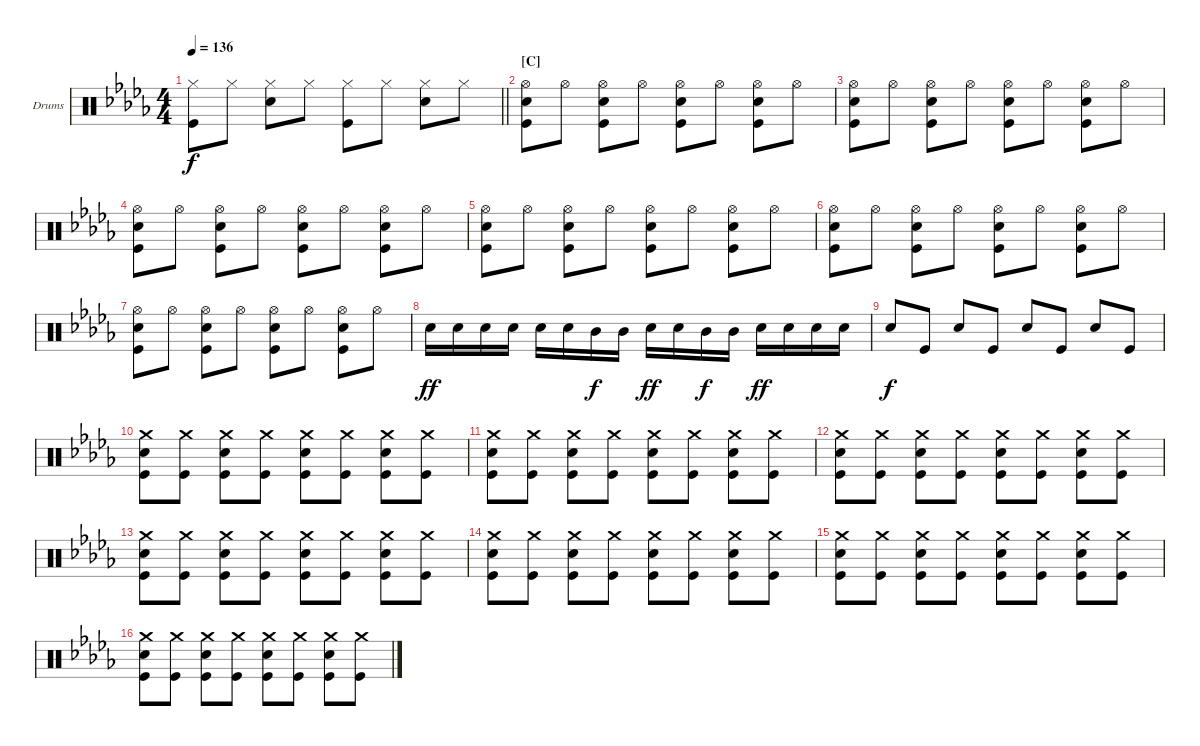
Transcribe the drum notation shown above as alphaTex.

\bracketExtendMode groupsimilarinstruments
\firstSystemTrackNameOrientation horizontal
\otherSystemsTrackNameOrientation horizontal
\track ("Fabrizio Moretti" "Drums") {instrument percussion}
\staff {score}
\articulation defaults
\ts (4 4)
\tempo 136
\clef neutral
\barLineRight lightlight
\ks db
("Hi-Hat (closed)" "Kick (hit)").8{dy f} "Hi-Hat (closed)".8 ("Hi-Hat (closed)" "Snare (hit) 2").8 "Hi-Hat (closed)".8 ("Hi-Hat (closed)" "Kick (hit)").8 "Hi-Hat (closed)".8 ("Hi-Hat (closed)" "Snare (hit) 2").8 "Hi-Hat (closed)".8 |
\section ("C" "")
("Hi-Hat (open)" "Snare (hit) 2" "Kick (hit)").8 "Hi-Hat (open)".8 ("Hi-Hat (open)" "Snare (hit) 2" "Kick (hit)").8 "Hi-Hat (open)".8 ("Hi-Hat (open)" "Snare (hit) 2" "Kick (hit)").8 "Hi-Hat (open)".8 ("Hi-Hat (open)" "Snare (hit) 2" "Kick (hit)").8 "Hi-Hat (open)".8 |
("Hi-Hat (open)" "Snare (hit) 2" "Kick (hit)").8 "Hi-Hat (open)".8 ("Hi-Hat (open)" "Snare (hit) 2" "Kick (hit)").8 "Hi-Hat (open)".8 ("Hi-Hat (open)" "Snare (hit) 2" "Kick (hit)").8 "Hi-Hat (open)".8 ("Hi-Hat (open)" "Snare (hit) 2" "Kick (hit)").8 "Hi-Hat (open)".8 |
("Hi-Hat (open)" "Snare (hit) 2" "Kick (hit)").8 "Hi-Hat (open)".8 ("Hi-Hat (open)" "Snare (hit) 2" "Kick (hit)").8 "Hi-Hat (open)".8 ("Hi-Hat (open)" "Snare (hit) 2" "Kick (hit)").8 "Hi-Hat (open)".8 ("Hi-Hat (open)" "Snare (hit) 2" "Kick (hit)").8 "Hi-Hat (open)".8 |
("Hi-Hat (open)" "Snare (hit) 2" "Kick (hit)").8 "Hi-Hat (open)".8 ("Hi-Hat (open)" "Snare (hit) 2" "Kick (hit)").8 "Hi-Hat (open)".8 ("Hi-Hat (open)" "Snare (hit) 2" "Kick (hit)").8 "Hi-Hat (open)".8 ("Hi-Hat (open)" "Snare (hit) 2" "Kick (hit)").8 "Hi-Hat (open)".8 |
("Hi-Hat (open)" "Snare (hit) 2" "Kick (hit)").8 "Hi-Hat (open)".8 ("Hi-Hat (open)" "Snare (hit) 2" "Kick (hit)").8 "Hi-Hat (open)".8 ("Hi-Hat (open)" "Snare (hit) 2" "Kick (hit)").8 "Hi-Hat (open)".8 ("Hi-Hat (open)" "Snare (hit) 2" "Kick (hit)").8 "Hi-Hat (open)".8 |
("Hi-Hat (open)" "Snare (hit) 2" "Kick (hit)").8 "Hi-Hat (open)".8 ("Hi-Hat (open)" "Snare (hit) 2" "Kick (hit)").8 "Hi-Hat (open)".8 ("Hi-Hat (open)" "Snare (hit) 2" "Kick (hit)").8 "Hi-Hat (open)".8 ("Hi-Hat (open)" "Snare (hit) 2" "Kick (hit)").8 "Hi-Hat (open)".8 |
"Snare (hit) 2".16{dy ff} "Snare (hit) 2".16 "Snare (hit) 2".16 "Snare (hit) 2".16 "Snare (hit) 2".16 "Snare (hit) 2".16 "Mid Tom (hit)".16{dy f} "Mid Tom (hit)".16 "Snare (hit) 2".16{dy ff} "Snare (hit) 2".16 "Mid Tom (hit)".16{dy f} "Mid Tom (hit)".16 "Snare (hit) 2".16{dy ff} "Snare (hit) 2".16 "Snare (hit) 2".16 "Snare (hit) 2".16 |
"Snare (hit) 2".8{dy f} "Kick (hit)".8 "Snare (hit) 2".8 "Kick (hit)".8 "Snare (hit) 2".8 "Kick (hit)".8 "Snare (hit) 2".8 "Kick (hit)".8 |
("Crash medium (hit)" "Snare (hit) 2" "Kick (hit)").8 ("Crash medium (hit)" "Kick (hit)").8 ("Crash medium (hit)" "Snare (hit) 2" "Kick (hit)").8 ("Crash medium (hit)" "Kick (hit)").8 ("Crash medium (hit)" "Snare (hit) 2" "Kick (hit)").8 ("Crash medium (hit)" "Kick (hit)").8 ("Crash medium (hit)" "Snare (hit) 2" "Kick (hit)").8 ("Crash medium (hit)" "Kick (hit)").8 |
("Crash medium (hit)" "Snare (hit) 2" "Kick (hit)").8 ("Crash medium (hit)" "Kick (hit)").8 ("Crash medium (hit)" "Snare (hit) 2" "Kick (hit)").8 ("Crash medium (hit)" "Kick (hit)").8 ("Crash medium (hit)" "Snare (hit) 2" "Kick (hit)").8 ("Crash medium (hit)" "Kick (hit)").8 ("Crash medium (hit)" "Snare (hit) 2" "Kick (hit)").8 ("Crash medium (hit)" "Kick (hit)").8 |
("Crash medium (hit)" "Snare (hit) 2" "Kick (hit)").8 ("Crash medium (hit)" "Kick (hit)").8 ("Crash medium (hit)" "Snare (hit) 2" "Kick (hit)").8 ("Crash medium (hit)" "Kick (hit)").8 ("Crash medium (hit)" "Snare (hit) 2" "Kick (hit)").8 ("Crash medium (hit)" "Kick (hit)").8 ("Crash medium (hit)" "Snare (hit) 2" "Kick (hit)").8 ("Crash medium (hit)" "Kick (hit)").8 |
("Crash medium (hit)" "Snare (hit) 2" "Kick (hit)").8 ("Crash medium (hit)" "Kick (hit)").8 ("Crash medium (hit)" "Snare (hit) 2" "Kick (hit)").8 ("Crash medium (hit)" "Kick (hit)").8 ("Crash medium (hit)" "Snare (hit) 2" "Kick (hit)").8 ("Crash medium (hit)" "Kick (hit)").8 ("Crash medium (hit)" "Snare (hit) 2" "Kick (hit)").8 ("Crash medium (hit)" "Kick (hit)").8 |
("Crash medium (hit)" "Snare (hit) 2" "Kick (hit)").8 ("Crash medium (hit)" "Kick (hit)").8 ("Crash medium (hit)" "Snare (hit) 2" "Kick (hit)").8 ("Crash medium (hit)" "Kick (hit)").8 ("Crash medium (hit)" "Snare (hit) 2" "Kick (hit)").8 ("Crash medium (hit)" "Kick (hit)").8 ("Crash medium (hit)" "Snare (hit) 2" "Kick (hit)").8 ("Crash medium (hit)" "Kick (hit)").8 |
("Crash medium (hit)" "Snare (hit) 2" "Kick (hit)").8 ("Crash medium (hit)" "Kick (hit)").8 ("Crash medium (hit)" "Snare (hit) 2" "Kick (hit)").8 ("Crash medium (hit)" "Kick (hit)").8 ("Crash medium (hit)" "Snare (hit) 2" "Kick (hit)").8 ("Crash medium (hit)" "Kick (hit)").8 ("Crash medium (hit)" "Snare (hit) 2" "Kick (hit)").8 ("Crash medium (hit)" "Kick (hit)").8 |
("Crash medium (hit)" "Snare (hit) 2" "Kick (hit)").8 ("Crash medium (hit)" "Kick (hit)").8 ("Crash medium (hit)" "Snare (hit) 2" "Kick (hit)").8 ("Crash medium (hit)" "Kick (hit)").8 ("Crash medium (hit)" "Snare (hit) 2" "Kick (hit)").8 ("Crash medium (hit)" "Kick (hit)").8 ("Crash medium (hit)" "Snare (hit) 2" "Kick (hit)").8 ("Crash medium (hit)" "Kick (hit)").8
